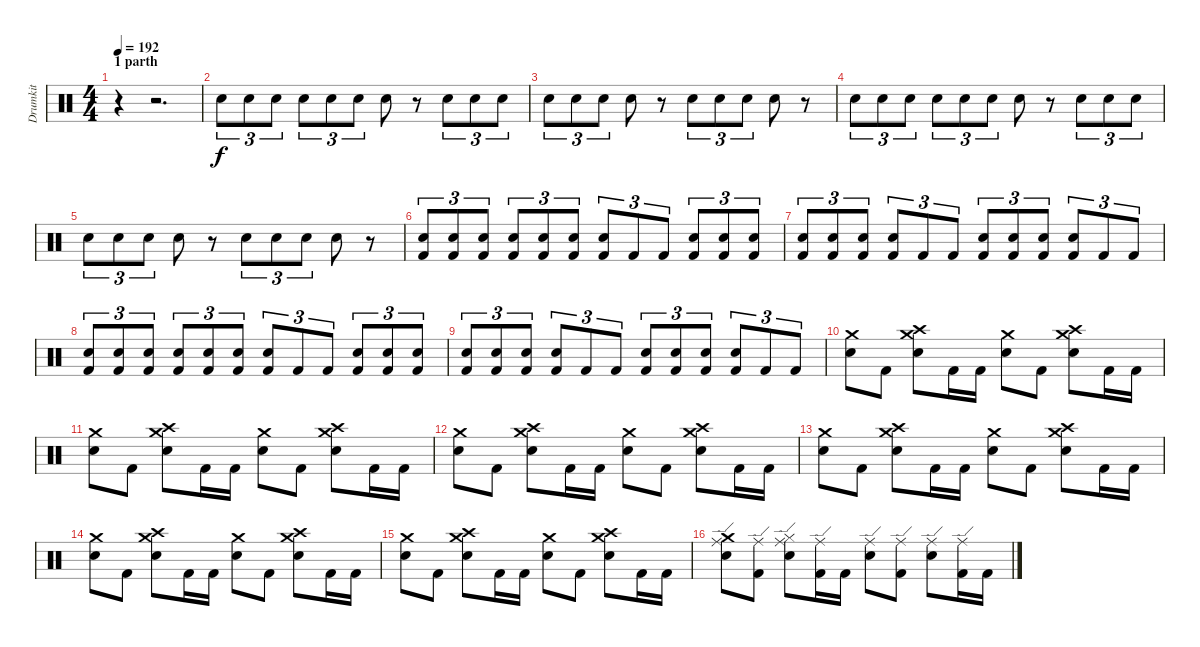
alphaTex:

\track ("Drumkit" "Drumkit") {instrument percussion}
\staff {score}
\articulation defaults
\ts (4 4)
\section ("" "1 parth")
\tempo 192
\clef neutral
\ks c
r.4{dy f} r.2{d} |
"Snare (hit) 2".8{tu (3 2)} "Snare (hit) 2".8{tu (3 2)} "Snare (hit) 2".8{tu (3 2)} "Snare (hit) 2".8{tu (3 2)} "Snare (hit) 2".8{tu (3 2)} "Snare (hit) 2".8{tu (3 2)} "Snare (hit) 2".8 r.8 "Snare (hit) 2".8{tu (3 2)} "Snare (hit) 2".8{tu (3 2)} "Snare (hit) 2".8{tu (3 2)} |
"Snare (hit) 2".8{tu (3 2)} "Snare (hit) 2".8{tu (3 2)} "Snare (hit) 2".8{tu (3 2)} "Snare (hit) 2".8 r.8 "Snare (hit) 2".8{tu (3 2)} "Snare (hit) 2".8{tu (3 2)} "Snare (hit) 2".8{tu (3 2)} "Snare (hit) 2".8 r.8 |
"Snare (hit) 2".8{tu (3 2)} "Snare (hit) 2".8{tu (3 2)} "Snare (hit) 2".8{tu (3 2)} "Snare (hit) 2".8{tu (3 2)} "Snare (hit) 2".8{tu (3 2)} "Snare (hit) 2".8{tu (3 2)} "Snare (hit) 2".8 r.8 "Snare (hit) 2".8{tu (3 2)} "Snare (hit) 2".8{tu (3 2)} "Snare (hit) 2".8{tu (3 2)} |
"Snare (hit) 2".8{tu (3 2)} "Snare (hit) 2".8{tu (3 2)} "Snare (hit) 2".8{tu (3 2)} "Snare (hit) 2".8 r.8 "Snare (hit) 2".8{tu (3 2)} "Snare (hit) 2".8{tu (3 2)} "Snare (hit) 2".8{tu (3 2)} "Snare (hit) 2".8 r.8 |
("Snare (hit) 2" "Kick (hit) 2").8{tu (3 2)} ("Snare (hit) 2" "Kick (hit) 2").8{tu (3 2)} ("Snare (hit) 2" "Kick (hit) 2").8{tu (3 2)} ("Kick (hit) 2" "Snare (hit) 2").8{tu (3 2)} ("Kick (hit) 2" "Snare (hit) 2").8{tu (3 2)} ("Kick (hit) 2" "Snare (hit) 2").8{tu (3 2)} ("Kick (hit) 2" "Snare (hit) 2").8{tu (3 2)} "Kick (hit) 2".8{tu (3 2)} "Kick (hit) 2".8{tu (3 2)} ("Kick (hit) 2" "Snare (hit) 2").8{tu (3 2)} ("Kick (hit) 2" "Snare (hit) 2").8{tu (3 2)} ("Kick (hit) 2" "Snare (hit) 2").8{tu (3 2)} |
("Kick (hit) 2" "Snare (hit) 2").8{tu (3 2)} ("Kick (hit) 2" "Snare (hit) 2").8{tu (3 2)} ("Kick (hit) 2" "Snare (hit) 2").8{tu (3 2)} ("Kick (hit) 2" "Snare (hit) 2").8{tu (3 2)} "Kick (hit) 2".8{tu (3 2)} "Kick (hit) 2".8{tu (3 2)} ("Kick (hit) 2" "Snare (hit) 2").8{tu (3 2)} ("Kick (hit) 2" "Snare (hit) 2").8{tu (3 2)} ("Kick (hit) 2" "Snare (hit) 2").8{tu (3 2)} ("Kick (hit) 2" "Snare (hit) 2").8{tu (3 2)} "Kick (hit) 2".8{tu (3 2)} "Kick (hit) 2".8{tu (3 2)} |
("Snare (hit) 2" "Kick (hit) 2").8{tu (3 2)} ("Snare (hit) 2" "Kick (hit) 2").8{tu (3 2)} ("Snare (hit) 2" "Kick (hit) 2").8{tu (3 2)} ("Kick (hit) 2" "Snare (hit) 2").8{tu (3 2)} ("Kick (hit) 2" "Snare (hit) 2").8{tu (3 2)} ("Kick (hit) 2" "Snare (hit) 2").8{tu (3 2)} ("Kick (hit) 2" "Snare (hit) 2").8{tu (3 2)} "Kick (hit) 2".8{tu (3 2)} "Kick (hit) 2".8{tu (3 2)} ("Kick (hit) 2" "Snare (hit) 2").8{tu (3 2)} ("Kick (hit) 2" "Snare (hit) 2").8{tu (3 2)} ("Kick (hit) 2" "Snare (hit) 2").8{tu (3 2)} |
("Kick (hit) 2" "Snare (hit) 2").8{tu (3 2)} ("Kick (hit) 2" "Snare (hit) 2").8{tu (3 2)} ("Kick (hit) 2" "Snare (hit) 2").8{tu (3 2)} ("Kick (hit) 2" "Snare (hit) 2").8{tu (3 2)} "Kick (hit) 2".8{tu (3 2)} "Kick (hit) 2".8{tu (3 2)} ("Kick (hit) 2" "Snare (hit) 2").8{tu (3 2)} ("Kick (hit) 2" "Snare (hit) 2").8{tu (3 2)} ("Kick (hit) 2" "Snare (hit) 2").8{tu (3 2)} ("Kick (hit) 2" "Snare (hit) 2").8{tu (3 2)} "Kick (hit) 2".8{tu (3 2)} "Kick (hit) 2".8{tu (3 2)} |
("Snare (hit) 2" "Crash medium (hit)").8 "Kick (hit) 2".8 ("Snare (hit) 2" "Crash medium (hit)" "Crash high (hit)").8 "Kick (hit) 2".16 "Kick (hit) 2".16 ("Snare (hit) 2" "Crash medium (hit)").8 "Kick (hit) 2".8 ("Snare (hit) 2" "Crash medium (hit)" "Crash high (hit)").8 "Kick (hit) 2".16 "Kick (hit) 2".16 |
("Snare (hit) 2" "Crash medium (hit)").8 "Kick (hit) 2".8 ("Snare (hit) 2" "Crash medium (hit)" "Crash high (hit)").8 "Kick (hit) 2".16 "Kick (hit) 2".16 ("Snare (hit) 2" "Crash medium (hit)").8 "Kick (hit) 2".8 ("Snare (hit) 2" "Crash medium (hit)" "Crash high (hit)").8 "Kick (hit) 2".16 "Kick (hit) 2".16 |
("Snare (hit) 2" "Crash medium (hit)").8 "Kick (hit) 2".8 ("Snare (hit) 2" "Crash medium (hit)" "Crash high (hit)").8 "Kick (hit) 2".16 "Kick (hit) 2".16 ("Snare (hit) 2" "Crash medium (hit)").8 "Kick (hit) 2".8 ("Snare (hit) 2" "Crash medium (hit)" "Crash high (hit)").8 "Kick (hit) 2".16 "Kick (hit) 2".16 |
("Snare (hit) 2" "Crash medium (hit)").8 "Kick (hit) 2".8 ("Snare (hit) 2" "Crash medium (hit)" "Crash high (hit)").8 "Kick (hit) 2".16 "Kick (hit) 2".16 ("Snare (hit) 2" "Crash medium (hit)").8 "Kick (hit) 2".8 ("Snare (hit) 2" "Crash medium (hit)" "Crash high (hit)").8 "Kick (hit) 2".16 "Kick (hit) 2".16 |
("Snare (hit) 2" "Crash medium (hit)").8 "Kick (hit) 2".8 ("Snare (hit) 2" "Crash medium (hit)" "Crash high (hit)").8 "Kick (hit) 2".16 "Kick (hit) 2".16 ("Snare (hit) 2" "Crash medium (hit)").8 "Kick (hit) 2".8 ("Snare (hit) 2" "Crash medium (hit)" "Crash high (hit)").8 "Kick (hit) 2".16 "Kick (hit) 2".16 |
("Snare (hit) 2" "Crash medium (hit)").8 "Kick (hit) 2".8 ("Snare (hit) 2" "Crash medium (hit)" "Crash high (hit)").8 "Kick (hit) 2".16 "Kick (hit) 2".16 ("Snare (hit) 2" "Crash medium (hit)").8 "Kick (hit) 2".8 ("Snare (hit) 2" "Crash medium (hit)" "Crash high (hit)").8 "Kick (hit) 2".16 "Kick (hit) 2".16 |
("Snare (hit) 2" "Crash medium (hit)" "Ride (edge)").8 ("Kick (hit) 2" "Ride (edge)").8 ("Snare (hit) 2" "Hi-Hat (closed)" "Ride (edge)").8 ("Kick (hit) 2" "Ride (edge)").16 "Kick (hit) 2".16 ("Snare (hit) 2" "Ride (edge)").8 ("Kick (hit) 2" "Ride (edge)").8 ("Snare (hit) 2" "Ride (edge)").8 ("Kick (hit) 2" "Ride (edge)").16 "Kick (hit) 2".16
